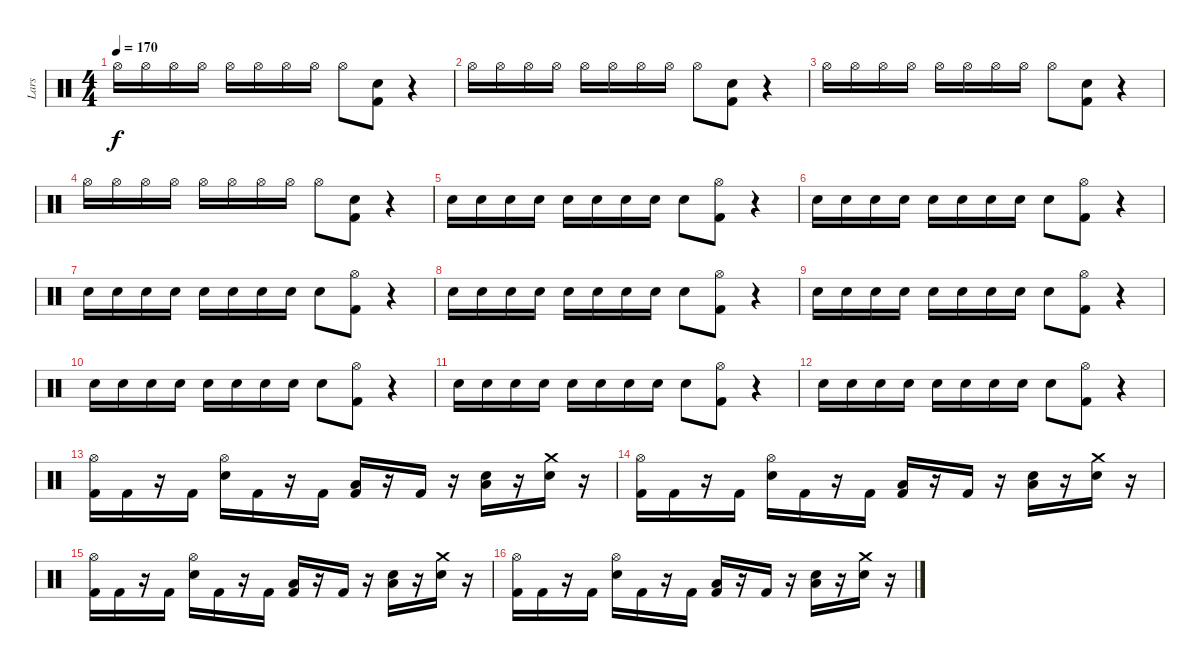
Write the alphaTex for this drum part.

\track ("Lars" "Lars") {instrument percussion}
\staff {score}
\articulation defaults
\ts (4 4)
\tempo 170
\clef neutral
\ks c "Hi-Hat (open)".16{dy f} "Hi-Hat (open)".16 "Hi-Hat (open)".16 "Hi-Hat (open)".16 "Hi-Hat (open)".16 "Hi-Hat (open)".16 "Hi-Hat (open)".16 "Hi-Hat (open)".16 "Hi-Hat (open)".8
("Electric Snare (hit)" "Kick (hit) 2").8 r.4 |
"Hi-Hat (open)".16 "Hi-Hat (open)".16 "Hi-Hat (open)".16 "Hi-Hat (open)".16 "Hi-Hat (open)".16 "Hi-Hat (open)".16 "Hi-Hat (open)".16 "Hi-Hat (open)".16 "Hi-Hat (open)".8 ("Electric Snare (hit)" "Kick (hit) 2").8 r.4 |
"Hi-Hat (open)".16 "Hi-Hat (open)".16 "Hi-Hat (open)".16 "Hi-Hat (open)".16 "Hi-Hat (open)".16 "Hi-Hat (open)".16 "Hi-Hat (open)".16 "Hi-Hat (open)".16 "Hi-Hat (open)".8 ("Electric Snare (hit)" "Kick (hit) 2").8 r.4 |
"Hi-Hat (open)".16 "Hi-Hat (open)".16 "Hi-Hat (open)".16 "Hi-Hat (open)".16 "Hi-Hat (open)".16 "Hi-Hat (open)".16 "Hi-Hat (open)".16 "Hi-Hat (open)".16 "Hi-Hat (open)".8 ("Electric Snare (hit)" "Kick (hit) 2").8 r.4 |
"Electric Snare (hit)".16 "Electric Snare (hit)".16 "Electric Snare (hit)".16 "Electric Snare (hit)".16 "Electric Snare (hit)".16 "Electric Snare (hit)".16 "Electric Snare (hit)".16 "Electric Snare (hit)".16 "Electric Snare (hit)".8 ("Hi-Hat (open)" "Kick (hit) 2").8 r.4 |
"Electric Snare (hit)".16 "Electric Snare (hit)".16 "Electric Snare (hit)".16 "Electric Snare (hit)".16 "Electric Snare (hit)".16 "Electric Snare (hit)".16 "Electric Snare (hit)".16 "Electric Snare (hit)".16 "Electric Snare (hit)".8 ("Hi-Hat (open)" "Kick (hit) 2").8 r.4 |
"Electric Snare (hit)".16 "Electric Snare (hit)".16 "Electric Snare (hit)".16 "Electric Snare (hit)".16 "Electric Snare (hit)".16 "Electric Snare (hit)".16 "Electric Snare (hit)".16 "Electric Snare (hit)".16 "Electric Snare (hit)".8 ("Hi-Hat (open)" "Kick (hit) 2").8 r.4 |
"Electric Snare (hit)".16 "Electric Snare (hit)".16 "Electric Snare (hit)".16 "Electric Snare (hit)".16 "Electric Snare (hit)".16 "Electric Snare (hit)".16 "Electric Snare (hit)".16 "Electric Snare (hit)".16 "Electric Snare (hit)".8 ("Hi-Hat (open)" "Kick (hit) 2").8 r.4 |
"Electric Snare (hit)".16 "Electric Snare (hit)".16 "Electric Snare (hit)".16 "Electric Snare (hit)".16 "Electric Snare (hit)".16 "Electric Snare (hit)".16 "Electric Snare (hit)".16 "Electric Snare (hit)".16 "Electric Snare (hit)".8 ("Hi-Hat (open)" "Kick (hit) 2").8 r.4 |
"Electric Snare (hit)".16 "Electric Snare (hit)".16 "Electric Snare (hit)".16 "Electric Snare (hit)".16 "Electric Snare (hit)".16 "Electric Snare (hit)".16 "Electric Snare (hit)".16 "Electric Snare (hit)".16 "Electric Snare (hit)".8 ("Hi-Hat (open)" "Kick (hit) 2").8 r.4 |
"Electric Snare (hit)".16 "Electric Snare (hit)".16 "Electric Snare (hit)".16 "Electric Snare (hit)".16 "Electric Snare (hit)".16 "Electric Snare (hit)".16 "Electric Snare (hit)".16 "Electric Snare (hit)".16 "Electric Snare (hit)".8 ("Hi-Hat (open)" "Kick (hit) 2").8 r.4 |
"Electric Snare (hit)".16 "Electric Snare (hit)".16 "Electric Snare (hit)".16 "Electric Snare (hit)".16 "Electric Snare (hit)".16 "Electric Snare (hit)".16 "Electric Snare (hit)".16 "Electric Snare (hit)".16 "Electric Snare (hit)".8 ("Hi-Hat (open)" "Kick (hit) 2").8 r.4 |
("Hi-Hat (open)" "Kick (hit) 2").16 "Kick (hit) 2".16 r.16 "Kick (hit) 2".16 ("Hi-Hat (open)" "Electric Snare (hit)").16 "Kick (hit) 2".16 r.16 "Kick (hit) 2".16 ("Low Tom (hit)" "Kick (hit) 2").16 r.16 "Kick (hit) 2".16 r.16 ("Low Tom (hit)" "Electric Snare (hit)").16 r.16 ("Crash medium (hit)" "Electric Snare (hit)").16 r.16 |
("Hi-Hat (open)" "Kick (hit) 2").16 "Kick (hit) 2".16 r.16 "Kick (hit) 2".16 ("Hi-Hat (open)" "Electric Snare (hit)").16 "Kick (hit) 2".16 r.16 "Kick (hit) 2".16 ("Low Tom (hit)" "Kick (hit) 2").16 r.16 "Kick (hit) 2".16 r.16 ("Low Tom (hit)" "Electric Snare (hit)").16 r.16 ("Crash medium (hit)" "Electric Snare (hit)").16 r.16 |
("Hi-Hat (open)" "Kick (hit) 2").16 "Kick (hit) 2".16 r.16 "Kick (hit) 2".16 ("Hi-Hat (open)" "Electric Snare (hit)").16 "Kick (hit) 2".16 r.16 "Kick (hit) 2".16 ("Low Tom (hit)" "Kick (hit) 2").16 r.16 "Kick (hit) 2".16 r.16 ("Low Tom (hit)" "Electric Snare (hit)").16 r.16 ("Crash medium (hit)" "Electric Snare (hit)").16 r.16 |
("Hi-Hat (open)" "Kick (hit) 2").16 "Kick (hit) 2".16 r.16 "Kick (hit) 2".16 ("Hi-Hat (open)" "Electric Snare (hit)").16 "Kick (hit) 2".16 r.16 "Kick (hit) 2".16 ("Low Tom (hit)" "Kick (hit) 2").16 r.16 "Kick (hit) 2".16 r.16 ("Low Tom (hit)" "Electric Snare (hit)").16 r.16 ("Crash medium (hit)" "Electric Snare (hit)").16 r.16
